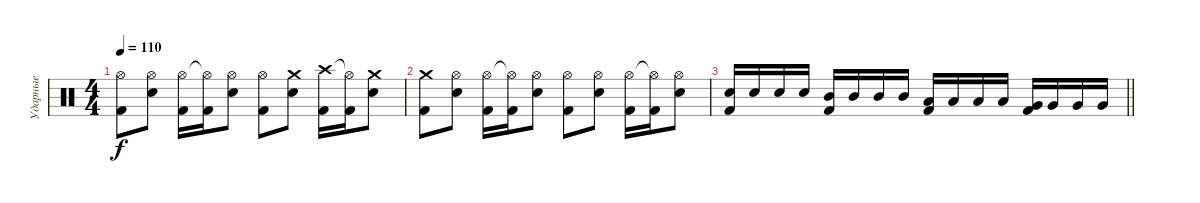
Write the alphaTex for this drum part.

\track ("Ударные" "Ударные") {instrument percussion}
\staff {score}
\articulation defaults
\ts (4 4)
\tempo 110
\clef neutral
\ks c
("Hi-Hat (open)" "Kick (hit) 2").8{dy f} ("Hi-Hat (open)" "Snare (hit) 2").8 ("Hi-Hat (open)" "Kick (hit) 2").16 ("Hi-Hat (open)"{t} "Kick (hit) 2").16 ("Hi-Hat (open)" "Snare (hit) 2").8 ("Hi-Hat (open)" "Kick (hit) 2").8 ("Crash medium (hit)" "Snare (hit) 2").8 ("Crash high (hit)" "Kick (hit) 2").16 ("Hi-Hat (open)"{t} "Kick (hit) 2").16 ("Crash medium (hit)" "Snare (hit) 2").8 |
("Crash medium (hit)" "Kick (hit) 2").8 ("Hi-Hat (open)" "Snare (hit) 2").8 ("Hi-Hat (open)" "Kick (hit) 2").16 ("Hi-Hat (open)"{t} "Kick (hit) 2").16 ("Hi-Hat (open)" "Snare (hit) 2").8 ("Hi-Hat (open)" "Kick (hit) 2").8 ("Hi-Hat (open)" "Snare (hit) 2").8 ("Hi-Hat (open)" "Kick (hit) 2").16 ("Hi-Hat (open)"{t} "Kick (hit) 2").16 ("Hi-Hat (open)" "Snare (hit) 2").8 |
\barLineRight lightlight
("Snare (hit) 2" "Kick (hit) 2").16 "Snare (hit) 2".16 "Snare (hit) 2".16 "Snare (hit) 2".16 ("Mid Tom (hit)" "Kick (hit) 2").16 "Mid Tom (hit)".16 "Mid Tom (hit)".16 "Mid Tom (hit)".16 ("Low Tom (hit)" "Kick (hit) 2").16 "Low Tom (hit)".16 "Low Tom (hit)".16 "Low Tom (hit)".16 ("Very Low Tom (hit)" "Kick (hit) 2").16 "Very Low Tom (hit)".16 "Very Low Tom (hit)".16 "Very Low Tom (hit)".16
